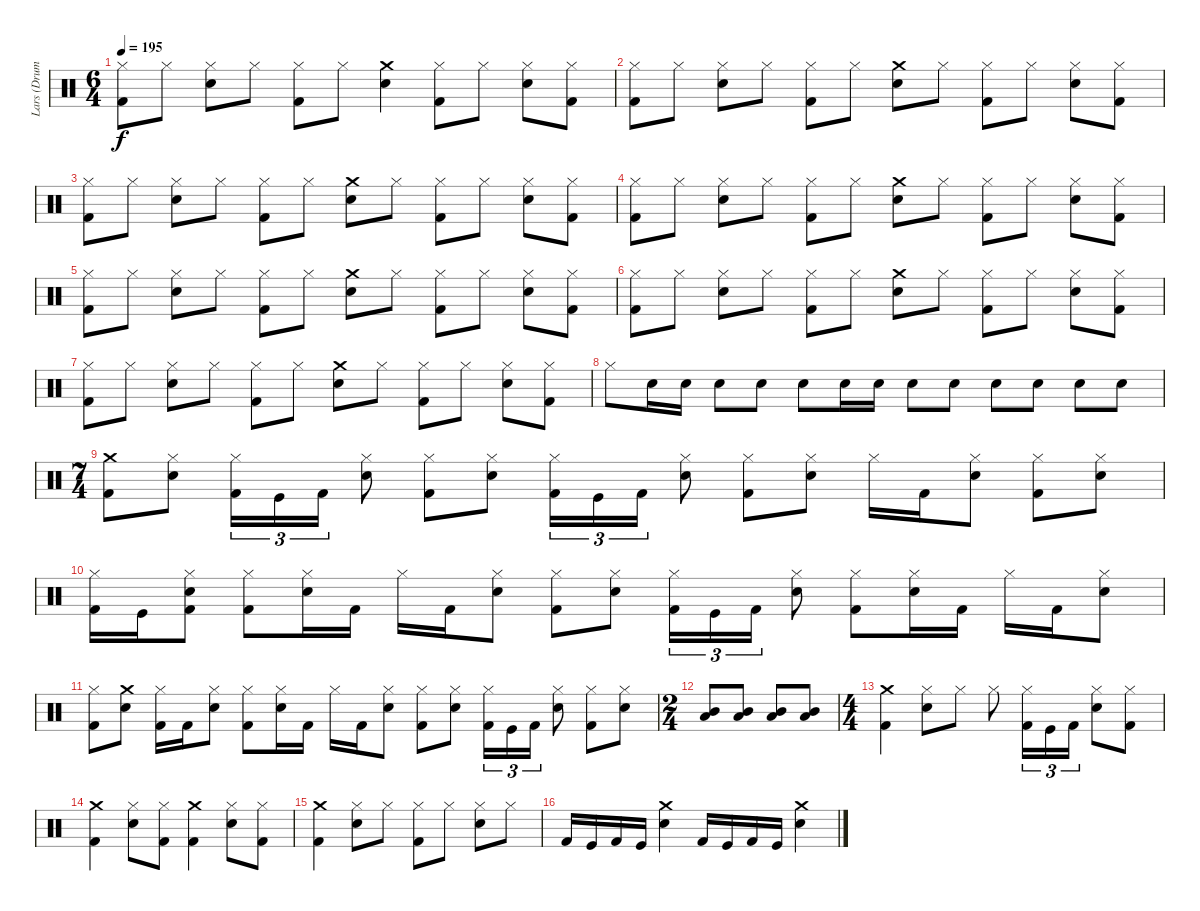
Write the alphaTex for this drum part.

\track ("Lars (Drums)" "Lars (Drum") {instrument percussion}
\staff {score}
\articulation defaults
\ts (6 4)
\tempo 195
\clef neutral
\ks c
("Hi-Hat (closed)" "Kick (hit) 2").8{dy f} "Hi-Hat (closed)".8 ("Snare (hit) 2" "Hi-Hat (closed)").8 "Hi-Hat (closed)".8 ("Hi-Hat (closed)" "Kick (hit) 2").8 "Hi-Hat (closed)".8 ("Snare (hit) 2" "Crash medium (hit)").4 ("Hi-Hat (closed)" "Kick (hit) 2").8 "Hi-Hat (closed)".8 ("Snare (hit) 2" "Hi-Hat (closed)").8 ("Kick (hit) 2" "Hi-Hat (closed)").8 |
("Hi-Hat (closed)" "Kick (hit) 2").8 "Hi-Hat (closed)".8 ("Snare (hit) 2" "Hi-Hat (closed)").8 "Hi-Hat (closed)".8 ("Hi-Hat (closed)" "Kick (hit) 2").8 "Hi-Hat (closed)".8 ("Crash medium (hit)" "Snare (hit) 2").8 "Hi-Hat (closed)".8 ("Hi-Hat (closed)" "Kick (hit) 2").8 "Hi-Hat (closed)".8 ("Snare (hit) 2" "Hi-Hat (closed)").8 ("Kick (hit) 2" "Hi-Hat (closed)").8 |
("Hi-Hat (closed)" "Kick (hit) 2").8 "Hi-Hat (closed)".8 ("Snare (hit) 2" "Hi-Hat (closed)").8 "Hi-Hat (closed)".8 ("Hi-Hat (closed)" "Kick (hit) 2").8 "Hi-Hat (closed)".8 ("Crash medium (hit)" "Snare (hit) 2").8 "Hi-Hat (closed)".8 ("Hi-Hat (closed)" "Kick (hit) 2").8 "Hi-Hat (closed)".8 ("Snare (hit) 2" "Hi-Hat (closed)").8 ("Kick (hit) 2" "Hi-Hat (closed)").8 |
("Hi-Hat (closed)" "Kick (hit) 2").8 "Hi-Hat (closed)".8 ("Snare (hit) 2" "Hi-Hat (closed)").8 "Hi-Hat (closed)".8 ("Hi-Hat (closed)" "Kick (hit) 2").8 "Hi-Hat (closed)".8 ("Crash medium (hit)" "Snare (hit) 2").8 "Hi-Hat (closed)".8 ("Hi-Hat (closed)" "Kick (hit) 2").8 "Hi-Hat (closed)".8 ("Snare (hit) 2" "Hi-Hat (closed)").8 ("Kick (hit) 2" "Hi-Hat (closed)").8 |
("Hi-Hat (closed)" "Kick (hit) 2").8 "Hi-Hat (closed)".8 ("Snare (hit) 2" "Hi-Hat (closed)").8 "Hi-Hat (closed)".8 ("Hi-Hat (closed)" "Kick (hit) 2").8 "Hi-Hat (closed)".8 ("Crash medium (hit)" "Snare (hit) 2").8 "Hi-Hat (closed)".8 ("Hi-Hat (closed)" "Kick (hit) 2").8 "Hi-Hat (closed)".8 ("Snare (hit) 2" "Hi-Hat (closed)").8 ("Kick (hit) 2" "Hi-Hat (closed)").8 |
("Hi-Hat (closed)" "Kick (hit) 2").8 "Hi-Hat (closed)".8 ("Snare (hit) 2" "Hi-Hat (closed)").8 "Hi-Hat (closed)".8 ("Hi-Hat (closed)" "Kick (hit) 2").8 "Hi-Hat (closed)".8 ("Crash medium (hit)" "Snare (hit) 2").8 "Hi-Hat (closed)".8 ("Hi-Hat (closed)" "Kick (hit) 2").8 "Hi-Hat (closed)".8 ("Snare (hit) 2" "Hi-Hat (closed)").8 ("Kick (hit) 2" "Hi-Hat (closed)").8 |
("Hi-Hat (closed)" "Kick (hit) 2").8 "Hi-Hat (closed)".8 ("Snare (hit) 2" "Hi-Hat (closed)").8 "Hi-Hat (closed)".8 ("Hi-Hat (closed)" "Kick (hit) 2").8 "Hi-Hat (closed)".8 ("Crash medium (hit)" "Snare (hit) 2").8 "Hi-Hat (closed)".8 ("Hi-Hat (closed)" "Kick (hit) 2").8 "Hi-Hat (closed)".8 ("Snare (hit) 2" "Hi-Hat (closed)").8 ("Kick (hit) 2" "Hi-Hat (closed)").8 |
"Hi-Hat (closed)".8 "Snare (hit) 2".16 "Snare (hit) 2".16 "Snare (hit) 2".8 "Snare (hit) 2".8 "Snare (hit) 2".8 "Snare (hit) 2".16 "Snare (hit) 2".16 "Snare (hit) 2".8 "Snare (hit) 2".8 "Snare (hit) 2".8 "Snare (hit) 2".8 "Snare (hit) 2".8 "Snare (hit) 2".8 |
\ts (7 4)
("Crash medium (hit)" "Kick (hit) 2").8 ("Snare (hit) 2" "Hi-Hat (closed)").8 ("Hi-Hat (closed)" "Kick (hit) 2").16{tu (3 2)} "Kick (hit)".16{tu (3 2)} "Kick (hit) 2".16{tu (3 2)} ("Snare (hit) 2" "Hi-Hat (closed)").8 ("Hi-Hat (closed)" "Kick (hit) 2").8 ("Snare (hit) 2" "Hi-Hat (closed)").8 ("Hi-Hat (closed)" "Kick (hit) 2").16{tu (3 2)} "Kick (hit)".16{tu (3 2)} "Kick (hit) 2".16{tu (3 2)} ("Snare (hit) 2" "Hi-Hat (closed)").8 ("Hi-Hat (closed)" "Kick (hit) 2").8 ("Snare (hit) 2" "Hi-Hat (closed)").8 "Hi-Hat (closed)".16 "Kick (hit) 2".16 ("Snare (hit) 2" "Hi-Hat (closed)").8 ("Hi-Hat (closed)" "Kick (hit) 2").8 ("Snare (hit) 2" "Hi-Hat (closed)").8 |
("Hi-Hat (closed)" "Kick (hit) 2").16 "Kick (hit)".16 ("Snare (hit) 2" "Hi-Hat (closed)" "Kick (hit) 2").8 ("Hi-Hat (closed)" "Kick (hit) 2").8 ("Snare (hit) 2" "Hi-Hat (closed)").16 "Kick (hit) 2".16 "Hi-Hat (closed)".16 "Kick (hit) 2".16 ("Snare (hit) 2" "Hi-Hat (closed)").8 ("Hi-Hat (closed)" "Kick (hit) 2").8 ("Snare (hit) 2" "Hi-Hat (closed)").8 ("Hi-Hat (closed)" "Kick (hit) 2").16{tu (3 2)} "Kick (hit)".16{tu (3 2)} "Kick (hit) 2".16{tu (3 2)} ("Snare (hit) 2" "Hi-Hat (closed)").8 ("Hi-Hat (closed)" "Kick (hit) 2").8 ("Snare (hit) 2" "Hi-Hat (closed)").16 "Kick (hit) 2".16 "Hi-Hat (closed)".16 "Kick (hit) 2".16 ("Snare (hit) 2" "Hi-Hat (closed)").8 |
("Kick (hit) 2" "Hi-Hat (closed)").8 ("Snare (hit) 2" "Crash medium (hit)").8 ("Hi-Hat (closed)" "Kick (hit) 2").16 "Kick (hit) 2".16 ("Snare (hit) 2" "Hi-Hat (closed)").8 ("Hi-Hat (closed)" "Kick (hit) 2").8 ("Snare (hit) 2" "Hi-Hat (closed)").16 "Kick (hit) 2".16 "Hi-Hat (closed)".16 "Kick (hit) 2".16 ("Snare (hit) 2" "Hi-Hat (closed)").8 ("Hi-Hat (closed)" "Kick (hit) 2").8 ("Snare (hit) 2" "Hi-Hat (closed)").8 ("Hi-Hat (closed)" "Kick (hit) 2").16{tu (3 2)} "Kick (hit)".16{tu (3 2)} "Kick (hit) 2".16{tu (3 2)} ("Snare (hit) 2" "Hi-Hat (closed)").8 ("Hi-Hat (closed)" "Kick (hit) 2").8 ("Snare (hit) 2" "Hi-Hat (closed)").8 |
\ts (2 4)
("Mid Tom (hit)" "Low Tom (hit)").8 ("Low Tom (hit)" "Mid Tom (hit)").8 ("Mid Tom (hit)" "Low Tom (hit)").8 ("Low Tom (hit)" "Mid Tom (hit)").8 |
\ts (4 4)
("Kick (hit) 2" "Crash medium (hit)").4 ("Hi-Hat (closed)" "Snare (hit) 2").8 "Hi-Hat (closed)".8 "Hi-Hat (closed)".8 ("Hi-Hat (closed)" "Kick (hit) 2").16{tu (3 2)} "Kick (hit)".16{tu (3 2)} "Kick (hit) 2".16{tu (3 2)} ("Snare (hit) 2" "Hi-Hat (closed)").8 ("Hi-Hat (closed)" "Kick (hit) 2").8 |
("Kick (hit) 2" "Crash medium (hit)").4 ("Hi-Hat (closed)" "Snare (hit) 2").8 ("Kick (hit) 2" "Hi-Hat (closed)").8 ("Crash medium (hit)" "Kick (hit) 2").4 ("Hi-Hat (closed)" "Snare (hit) 2").8 ("Kick (hit) 2" "Hi-Hat (closed)").8 |
("Kick (hit) 2" "Crash medium (hit)").4 ("Hi-Hat (closed)" "Snare (hit) 2").8 "Hi-Hat (closed)".8 ("Hi-Hat (closed)" "Kick (hit) 2").8 "Hi-Hat (closed)".8 ("Snare (hit) 2" "Hi-Hat (closed)").8 "Hi-Hat (closed)".8 |
"Kick (hit) 2".16 "Kick (hit)".16 "Kick (hit) 2".16 "Kick (hit)".16 ("Crash medium (hit)" "Snare (hit) 2").4 "Kick (hit) 2".16 "Kick (hit)".16 "Kick (hit) 2".16 "Kick (hit)".16 ("Snare (hit) 2" "Crash medium (hit)").4
